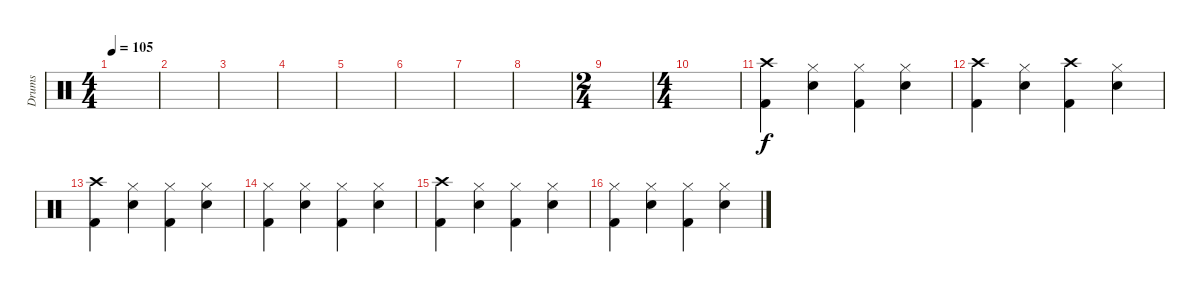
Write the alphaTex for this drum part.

\track ("Drums" "Drums") {instrument percussion}
\staff {score}
\articulation defaults
\ts (4 4)
\tempo 105
\clef neutral
\ks c
|
|
|
|
|
|
|
|
\ts (2 4)
|
\ts (4 4)
|
("Kick (hit) 2" "Crash high (hit)").4 ("Snare (hit) 2" "Hi-Hat (closed)").4 ("Kick (hit) 2" "Hi-Hat (closed)").4 ("Snare (hit) 2" "Hi-Hat (closed)").4 |
("Kick (hit) 2" "Crash high (hit)").4 ("Snare (hit) 2" "Hi-Hat (closed)").4 ("Kick (hit) 2" "Crash high (hit)").4 ("Snare (hit) 2" "Hi-Hat (closed)").4 |
("Kick (hit) 2" "Crash high (hit)").4 ("Snare (hit) 2" "Hi-Hat (closed)").4 ("Kick (hit) 2" "Hi-Hat (closed)").4 ("Snare (hit) 2" "Hi-Hat (closed)").4 |
("Kick (hit) 2" "Hi-Hat (closed)").4 ("Snare (hit) 2" "Hi-Hat (closed)").4 ("Kick (hit) 2" "Hi-Hat (closed)").4 ("Snare (hit) 2" "Hi-Hat (closed)").4 |
("Kick (hit) 2" "Crash high (hit)").4 ("Snare (hit) 2" "Hi-Hat (closed)").4 ("Kick (hit) 2" "Hi-Hat (closed)").4 ("Snare (hit) 2" "Hi-Hat (closed)").4 |
("Kick (hit) 2" "Hi-Hat (closed)").4 ("Snare (hit) 2" "Hi-Hat (closed)").4 ("Kick (hit) 2" "Hi-Hat (closed)").4 ("Snare (hit) 2" "Hi-Hat (closed)").4
